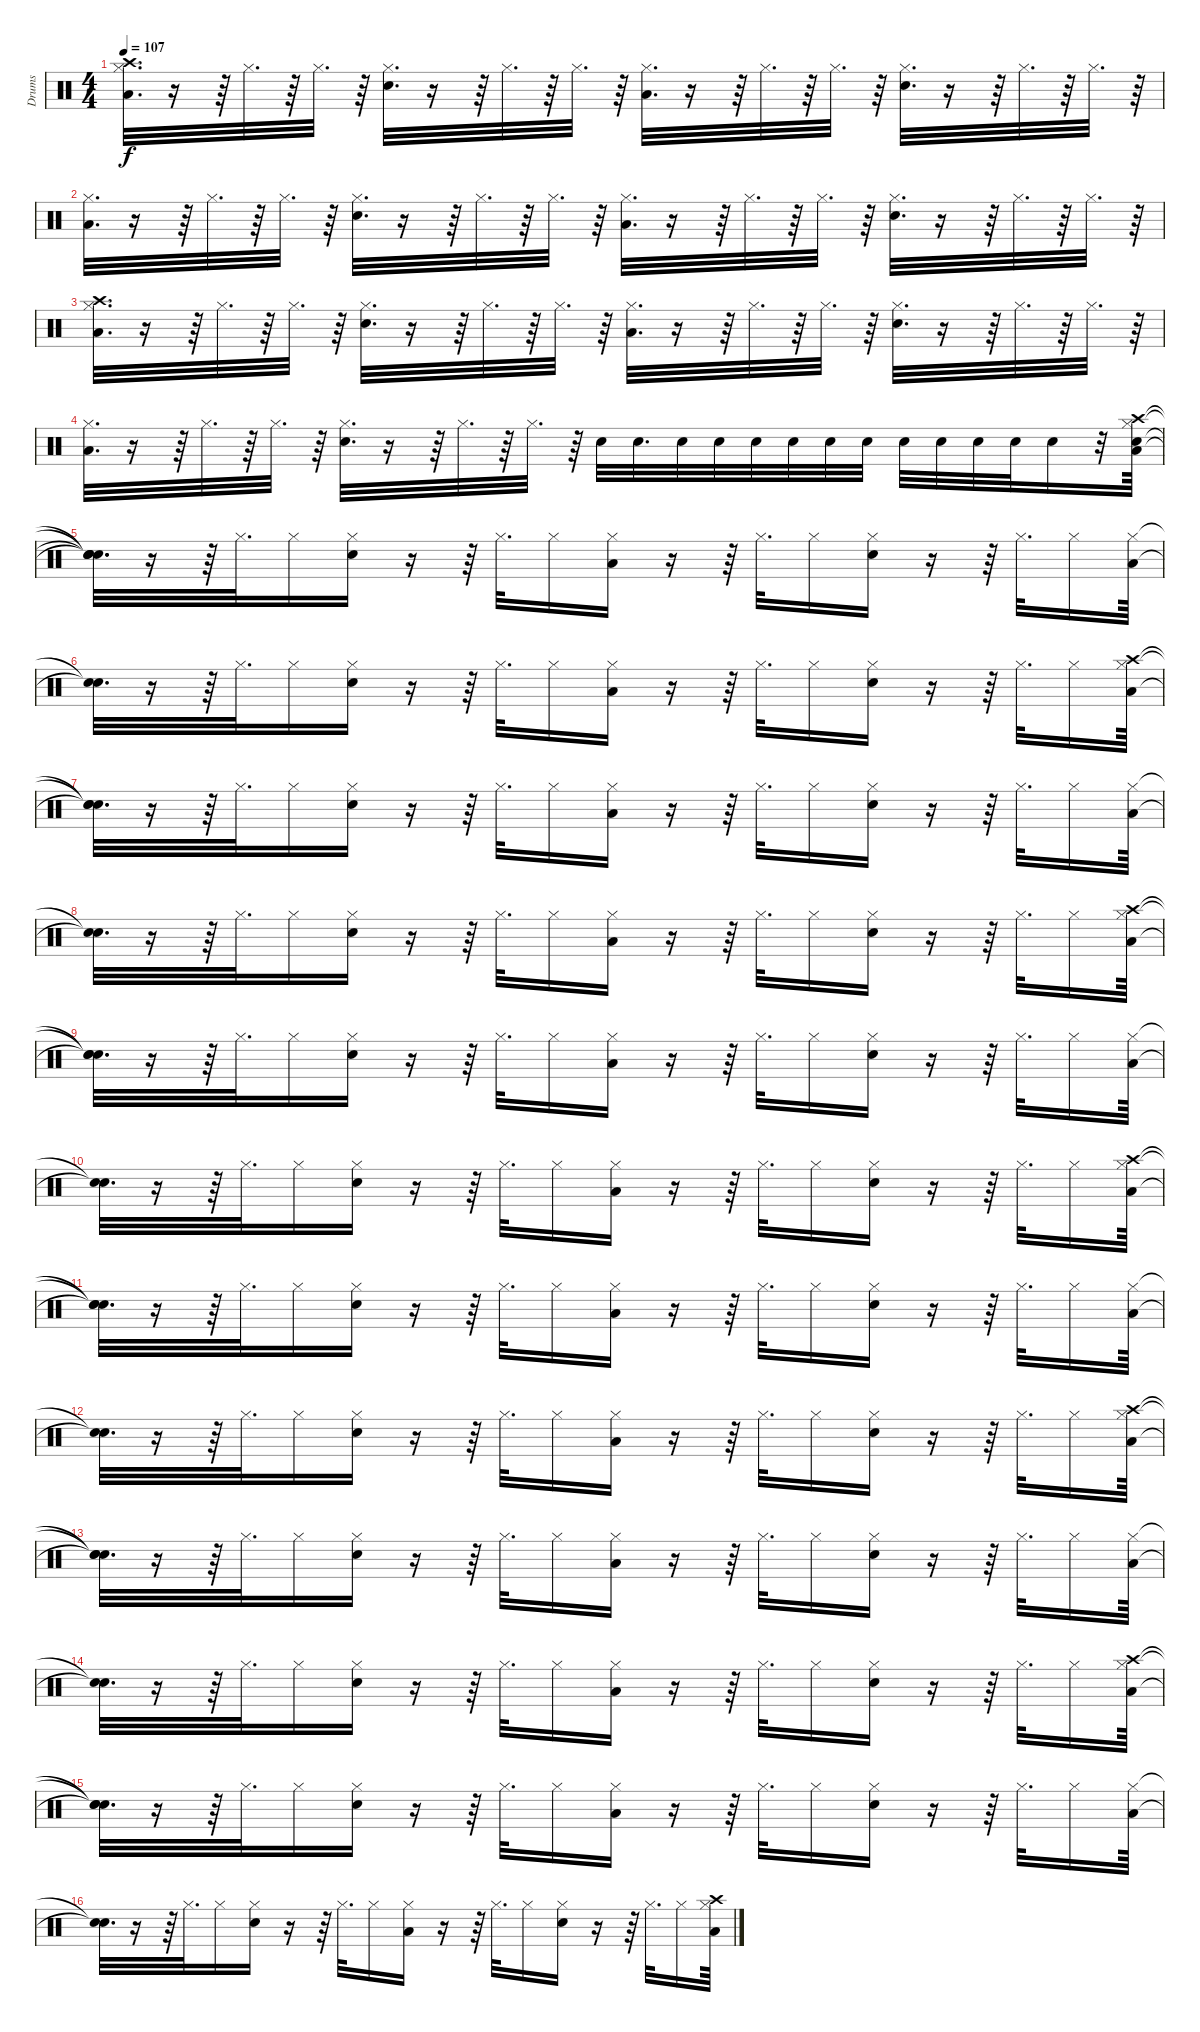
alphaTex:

\track ("Drums" "Drums") {instrument percussion}
\staff {score}
\articulation defaults
\ts (4 4)
\tempo 107
\clef neutral
\ks c
("Hi-Hat (closed)" "Crash high (hit)" "Low Tom (hit)").32{d dy f} r.16 r.64 "Hi-Hat (closed)".32{d} r.64 "Hi-Hat (closed)".32{d} r.64 ("Hi-Hat (closed)" "Snare (hit) 2").32{d} r.16 r.64 "Hi-Hat (closed)".32{d} r.64 "Hi-Hat (closed)".32{d} r.64 ("Hi-Hat (closed)" "Low Tom (hit)").32{d} r.16 r.64 "Hi-Hat (closed)".32{d} r.64 "Hi-Hat (closed)".32{d} r.64 ("Hi-Hat (closed)" "Snare (hit) 2").32{d} r.16 r.64 "Hi-Hat (closed)".32{d} r.64 "Hi-Hat (closed)".32{d} r.64 |
("Hi-Hat (closed)" "Low Tom (hit)").32{d} r.16 r.64 "Hi-Hat (closed)".32{d} r.64 "Hi-Hat (closed)".32{d} r.64 ("Hi-Hat (closed)" "Snare (hit) 2").32{d} r.16 r.64 "Hi-Hat (closed)".32{d} r.64 "Hi-Hat (closed)".32{d} r.64 ("Hi-Hat (closed)" "Low Tom (hit)").32{d} r.16 r.64 "Hi-Hat (closed)".32{d} r.64 "Hi-Hat (closed)".32{d} r.64 ("Hi-Hat (closed)" "Snare (hit) 2").32{d} r.16 r.64 "Hi-Hat (closed)".32{d} r.64 "Hi-Hat (closed)".32{d} r.64 |
("Hi-Hat (closed)" "Crash high (hit)" "Low Tom (hit)").32{d} r.16 r.64 "Hi-Hat (closed)".32{d} r.64 "Hi-Hat (closed)".32{d} r.64 ("Hi-Hat (closed)" "Snare (hit) 2").32{d} r.16 r.64 "Hi-Hat (closed)".32{d} r.64 "Hi-Hat (closed)".32{d} r.64 ("Hi-Hat (closed)" "Low Tom (hit)").32{d} r.16 r.64 "Hi-Hat (closed)".32{d} r.64 "Hi-Hat (closed)".32{d} r.64 ("Hi-Hat (closed)" "Snare (hit) 2").32{d} r.16 r.64 "Hi-Hat (closed)".32{d} r.64 "Hi-Hat (closed)".32{d} r.64 |
("Hi-Hat (closed)" "Low Tom (hit)").32{d} r.16 r.64 "Hi-Hat (closed)".32{d} r.64 "Hi-Hat (closed)".32{d} r.64 ("Hi-Hat (closed)" "Snare (hit) 2").32{d} r.16 r.64 "Hi-Hat (closed)".32{d} r.64 "Hi-Hat (closed)".32{d} r.64 "Snare (hit) 2".32 "Snare (hit) 2".32{d} "Snare (hit) 2".32 "Snare (hit) 2".32 "Snare (hit) 2".32 "Snare (hit) 2".32 "Snare (hit) 2".32 "Snare (hit) 2".32 "Snare (hit) 2".32 "Snare (hit) 2".32 "Snare (hit) 2".32 "Snare (hit) 2".32 "Snare (hit) 2".16 r.32 ("Hi-Hat (closed)" "Crash high (hit)" "Low Tom (hit)" "Snare (hit) 2").64 |
("Snare (hit)"{t} "Snare (hit)"{t} "Snare (hit)"{t} "Snare (hit)"{t}).32{d} r.16 r.64 "Hi-Hat (closed)".32{d} "Hi-Hat (closed)".16 ("Hi-Hat (closed)" "Snare (hit) 2").16 r.16 r.64 "Hi-Hat (closed)".32{d} "Hi-Hat (closed)".16 ("Hi-Hat (closed)" "Low Tom (hit)").16 r.16 r.64 "Hi-Hat (closed)".32{d} "Hi-Hat (closed)".16 ("Hi-Hat (closed)" "Snare (hit) 2").16 r.16 r.64 "Hi-Hat (closed)".32{d} "Hi-Hat (closed)".16 ("Hi-Hat (closed)" "Low Tom (hit)").64 |
("Snare (hit)"{t} "Snare (hit)"{t}).32{d} r.16 r.64 "Hi-Hat (closed)".32{d} "Hi-Hat (closed)".16 ("Hi-Hat (closed)" "Snare (hit) 2").16 r.16 r.64 "Hi-Hat (closed)".32{d} "Hi-Hat (closed)".16 ("Hi-Hat (closed)" "Low Tom (hit)").16 r.16 r.64 "Hi-Hat (closed)".32{d} "Hi-Hat (closed)".16 ("Hi-Hat (closed)" "Snare (hit) 2").16 r.16 r.64 "Hi-Hat (closed)".32{d} "Hi-Hat (closed)".16 ("Hi-Hat (closed)" "Crash high (hit)" "Low Tom (hit)").64 |
("Snare (hit)"{t} "Snare (hit)"{t} "Snare (hit)"{t}).32{d} r.16 r.64 "Hi-Hat (closed)".32{d} "Hi-Hat (closed)".16 ("Hi-Hat (closed)" "Snare (hit) 2").16 r.16 r.64 "Hi-Hat (closed)".32{d} "Hi-Hat (closed)".16 ("Hi-Hat (closed)" "Low Tom (hit)").16 r.16 r.64 "Hi-Hat (closed)".32{d} "Hi-Hat (closed)".16 ("Hi-Hat (closed)" "Snare (hit) 2").16 r.16 r.64 "Hi-Hat (closed)".32{d} "Hi-Hat (closed)".16 ("Hi-Hat (closed)" "Low Tom (hit)").64 |
("Snare (hit)"{t} "Snare (hit)"{t}).32{d} r.16 r.64 "Hi-Hat (closed)".32{d} "Hi-Hat (closed)".16 ("Hi-Hat (closed)" "Snare (hit) 2").16 r.16 r.64 "Hi-Hat (closed)".32{d} "Hi-Hat (closed)".16 ("Hi-Hat (closed)" "Low Tom (hit)").16 r.16 r.64 "Hi-Hat (closed)".32{d} "Hi-Hat (closed)".16 ("Hi-Hat (closed)" "Snare (hit) 2").16 r.16 r.64 "Hi-Hat (closed)".32{d} "Hi-Hat (closed)".16 ("Hi-Hat (closed)" "Crash high (hit)" "Low Tom (hit)").64 |
("Snare (hit)"{t} "Snare (hit)"{t} "Snare (hit)"{t}).32{d} r.16 r.64 "Hi-Hat (closed)".32{d} "Hi-Hat (closed)".16 ("Hi-Hat (closed)" "Snare (hit) 2").16 r.16 r.64 "Hi-Hat (closed)".32{d} "Hi-Hat (closed)".16 ("Hi-Hat (closed)" "Low Tom (hit)").16 r.16 r.64 "Hi-Hat (closed)".32{d} "Hi-Hat (closed)".16 ("Hi-Hat (closed)" "Snare (hit) 2").16 r.16 r.64 "Hi-Hat (closed)".32{d} "Hi-Hat (closed)".16 ("Hi-Hat (closed)" "Low Tom (hit)").64 |
("Snare (hit)"{t} "Snare (hit)"{t}).32{d} r.16 r.64 "Hi-Hat (closed)".32{d} "Hi-Hat (closed)".16 ("Hi-Hat (closed)" "Snare (hit) 2").16 r.16 r.64 "Hi-Hat (closed)".32{d} "Hi-Hat (closed)".16 ("Hi-Hat (closed)" "Low Tom (hit)").16 r.16 r.64 "Hi-Hat (closed)".32{d} "Hi-Hat (closed)".16 ("Hi-Hat (closed)" "Snare (hit) 2").16 r.16 r.64 "Hi-Hat (closed)".32{d} "Hi-Hat (closed)".16 ("Hi-Hat (closed)" "Crash high (hit)" "Low Tom (hit)").64 |
("Snare (hit)"{t} "Snare (hit)"{t} "Snare (hit)"{t}).32{d} r.16 r.64 "Hi-Hat (closed)".32{d} "Hi-Hat (closed)".16 ("Hi-Hat (closed)" "Snare (hit) 2").16 r.16 r.64 "Hi-Hat (closed)".32{d} "Hi-Hat (closed)".16 ("Hi-Hat (closed)" "Low Tom (hit)").16 r.16 r.64 "Hi-Hat (closed)".32{d} "Hi-Hat (closed)".16 ("Hi-Hat (closed)" "Snare (hit) 2").16 r.16 r.64 "Hi-Hat (closed)".32{d} "Hi-Hat (closed)".16 ("Hi-Hat (closed)" "Low Tom (hit)").64 |
("Snare (hit)"{t} "Snare (hit)"{t}).32{d} r.16 r.64 "Hi-Hat (closed)".32{d} "Hi-Hat (closed)".16 ("Hi-Hat (closed)" "Snare (hit) 2").16 r.16 r.64 "Hi-Hat (closed)".32{d} "Hi-Hat (closed)".16 ("Hi-Hat (closed)" "Low Tom (hit)").16 r.16 r.64 "Hi-Hat (closed)".32{d} "Hi-Hat (closed)".16 ("Hi-Hat (closed)" "Snare (hit) 2").16 r.16 r.64 "Hi-Hat (closed)".32{d} "Hi-Hat (closed)".16 ("Hi-Hat (closed)" "Crash high (hit)" "Low Tom (hit)").64 |
("Snare (hit)"{t} "Snare (hit)"{t} "Snare (hit)"{t}).32{d} r.16 r.64 "Hi-Hat (closed)".32{d} "Hi-Hat (closed)".16 ("Hi-Hat (closed)" "Snare (hit) 2").16 r.16 r.64 "Hi-Hat (closed)".32{d} "Hi-Hat (closed)".16 ("Hi-Hat (closed)" "Low Tom (hit)").16 r.16 r.64 "Hi-Hat (closed)".32{d} "Hi-Hat (closed)".16 ("Hi-Hat (closed)" "Snare (hit) 2").16 r.16 r.64 "Hi-Hat (closed)".32{d} "Hi-Hat (closed)".16 ("Hi-Hat (closed)" "Low Tom (hit)").64 |
("Snare (hit)"{t} "Snare (hit)"{t}).32{d} r.16 r.64 "Hi-Hat (closed)".32{d} "Hi-Hat (closed)".16 ("Hi-Hat (closed)" "Snare (hit) 2").16 r.16 r.64 "Hi-Hat (closed)".32{d} "Hi-Hat (closed)".16 ("Hi-Hat (closed)" "Low Tom (hit)").16 r.16 r.64 "Hi-Hat (closed)".32{d} "Hi-Hat (closed)".16 ("Hi-Hat (closed)" "Snare (hit) 2").16 r.16 r.64 "Hi-Hat (closed)".32{d} "Hi-Hat (closed)".16 ("Hi-Hat (closed)" "Crash high (hit)" "Low Tom (hit)").64 |
("Snare (hit)"{t} "Snare (hit)"{t} "Snare (hit)"{t}).32{d} r.16 r.64 "Hi-Hat (closed)".32{d} "Hi-Hat (closed)".16 ("Hi-Hat (closed)" "Snare (hit) 2").16 r.16 r.64 "Hi-Hat (closed)".32{d} "Hi-Hat (closed)".16 ("Hi-Hat (closed)" "Low Tom (hit)").16 r.16 r.64 "Hi-Hat (closed)".32{d} "Hi-Hat (closed)".16 ("Hi-Hat (closed)" "Snare (hit) 2").16 r.16 r.64 "Hi-Hat (closed)".32{d} "Hi-Hat (closed)".16 ("Hi-Hat (closed)" "Low Tom (hit)").64 |
("Snare (hit)"{t} "Snare (hit)"{t}).32{d} r.16 r.64 "Hi-Hat (closed)".32{d} "Hi-Hat (closed)".16 ("Hi-Hat (closed)" "Snare (hit) 2").16 r.16 r.64 "Hi-Hat (closed)".32{d} "Hi-Hat (closed)".16 ("Hi-Hat (closed)" "Low Tom (hit)").16 r.16 r.64 "Hi-Hat (closed)".32{d} "Hi-Hat (closed)".16 ("Hi-Hat (closed)" "Snare (hit) 2").16 r.16 r.64 "Hi-Hat (closed)".32{d} "Hi-Hat (closed)".16 ("Hi-Hat (closed)" "Crash high (hit)" "Low Tom (hit)").64
